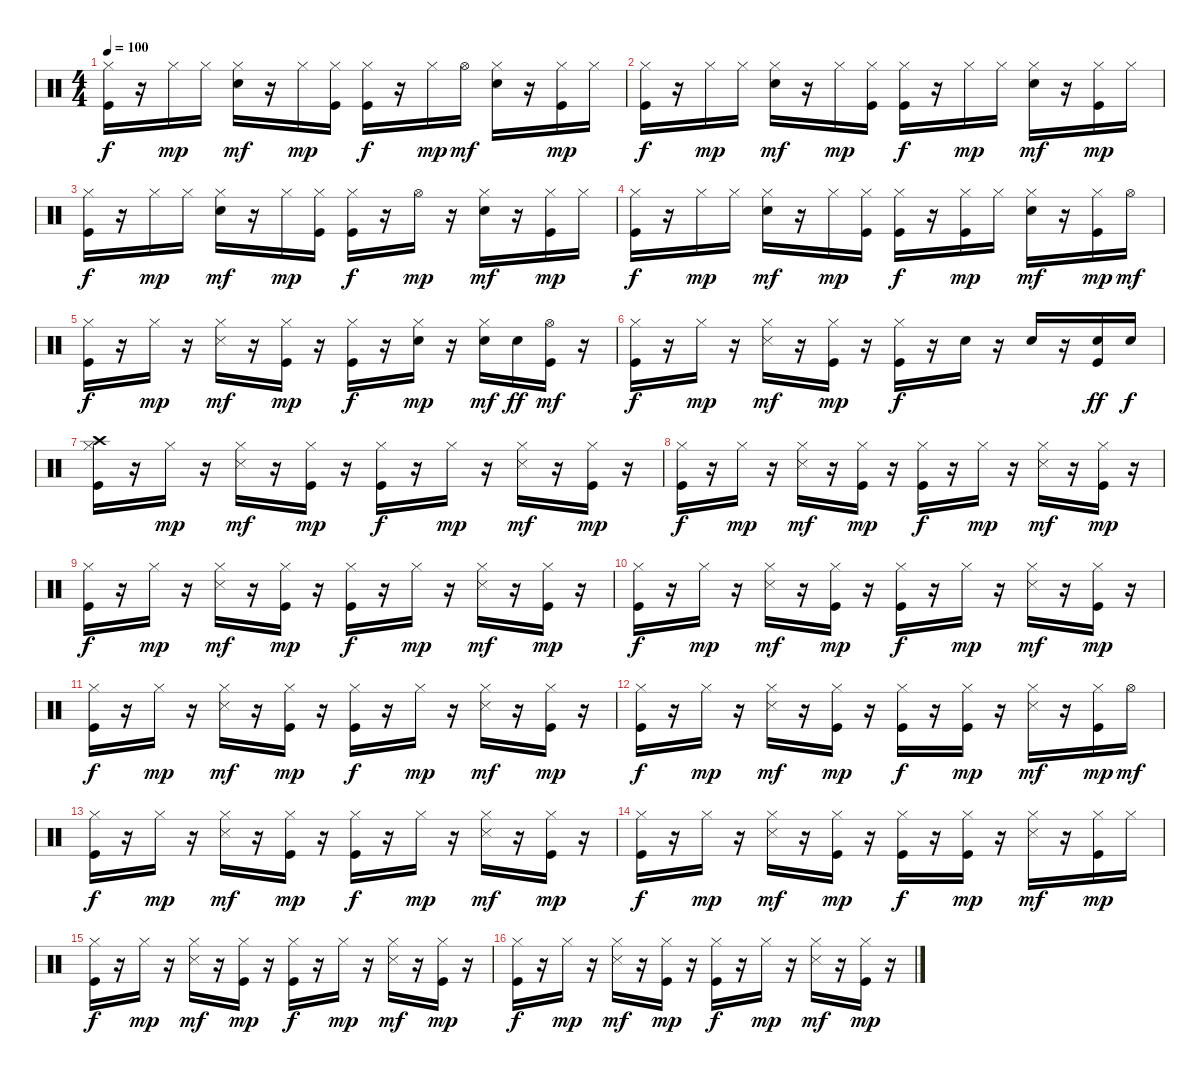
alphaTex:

\track "" {instrument percussion}
\staff {score}
\articulation defaults
\ts (4 4)
\tempo 100
\clef neutral
\ks c
("Kick (hit)" "Hi-Hat (closed)").16{dy f} r.16 "Hi-Hat (closed)".16{dy mp} "Hi-Hat (closed)".16 ("Snare (hit) 2" "Hi-Hat (closed)").16{dy mf} r.16 "Hi-Hat (closed)".16{dy mp} ("Kick (hit)" "Hi-Hat (closed)").16 ("Kick (hit)" "Hi-Hat (closed)").16{dy f} r.16 "Hi-Hat (closed)".16{dy mp} "Hi-Hat (open)".16{dy mf} ("Snare (hit) 2" "Hi-Hat (closed)").16 r.16 ("Kick (hit)" "Hi-Hat (closed)").16{dy mp} "Hi-Hat (closed)".16 |
("Kick (hit)" "Hi-Hat (closed)").16{dy f} r.16 "Hi-Hat (closed)".16{dy mp} "Hi-Hat (closed)".16 ("Snare (hit) 2" "Hi-Hat (closed)").16{dy mf} r.16 "Hi-Hat (closed)".16{dy mp} ("Kick (hit)" "Hi-Hat (closed)").16 ("Kick (hit)" "Hi-Hat (closed)").16{dy f} r.16 "Hi-Hat (closed)".16{dy mp} "Hi-Hat (closed)".16 ("Snare (hit) 2" "Hi-Hat (closed)").16{dy mf} r.16 ("Kick (hit)" "Hi-Hat (closed)").16{dy mp} "Hi-Hat (closed)".16 |
("Kick (hit)" "Hi-Hat (closed)").16{dy f} r.16 "Hi-Hat (closed)".16{dy mp} "Hi-Hat (closed)".16 ("Snare (hit) 2" "Hi-Hat (closed)").16{dy mf} r.16 "Hi-Hat (closed)".16{dy mp} ("Kick (hit)" "Hi-Hat (closed)").16 ("Kick (hit)" "Hi-Hat (closed)").16{dy f} r.16 "Hi-Hat (open)".16{dy mp} r.16 ("Snare (hit) 2" "Hi-Hat (closed)").16{dy mf} r.16 ("Kick (hit)" "Hi-Hat (closed)").16{dy mp} "Hi-Hat (closed)".16 |
("Kick (hit)" "Hi-Hat (closed)").16{dy f} r.16 "Hi-Hat (closed)".16{dy mp} "Hi-Hat (closed)".16 ("Snare (hit) 2" "Hi-Hat (closed)").16{dy mf} r.16 "Hi-Hat (closed)".16{dy mp} ("Kick (hit)" "Hi-Hat (closed)").16 ("Kick (hit)" "Hi-Hat (closed)").16{dy f} r.16 ("Kick (hit)" "Hi-Hat (closed)").16{dy mp} "Hi-Hat (closed)".16 ("Snare (hit) 2" "Hi-Hat (closed)").16{dy mf} r.16 ("Kick (hit)" "Hi-Hat (closed)").16{dy mp} "Hi-Hat (open)".16{dy mf} |
("Kick (hit)" "Hi-Hat (closed)").16{dy f} r.16 "Hi-Hat (closed)".16{dy mp} r.16 ("Hi-Hat (closed)" "Snare (side stick) 3").16{dy mf} r.16 ("Kick (hit)" "Hi-Hat (closed)").16{dy mp} r.16 ("Kick (hit)" "Hi-Hat (closed)").16{dy f} r.16 ("Snare (hit) 2" "Hi-Hat (closed)").16{dy mp} r.16 ("Snare (hit) 2" "Hi-Hat (closed)").16{dy mf} "Snare (hit) 2".16{dy ff} ("Kick (hit)" "Hi-Hat (open)").16{dy mf} r.16 |
("Kick (hit)" "Hi-Hat (closed)").16{dy f} r.16 "Hi-Hat (closed)".16{dy mp} r.16 ("Hi-Hat (closed)" "Snare (side stick) 3").16{dy mf} r.16 ("Kick (hit)" "Hi-Hat (closed)").16{dy mp} r.16 ("Kick (hit)" "Hi-Hat (closed)").16{dy f} r.16 "Snare (hit) 2".16 r.16 "Snare (hit) 2".16 r.16 ("Kick (hit)" "Snare (hit) 2").16{dy ff} "Snare (hit) 2".16{dy f} |
("Kick (hit)" "Hi-Hat (closed)" "Crash high (hit)").16 r.16 "Hi-Hat (closed)".16{dy mp} r.16 ("Hi-Hat (closed)" "Snare (side stick) 3").16{dy mf} r.16 ("Kick (hit)" "Hi-Hat (closed)").16{dy mp} r.16 ("Kick (hit)" "Hi-Hat (closed)").16{dy f} r.16 "Hi-Hat (closed)".16{dy mp} r.16 ("Hi-Hat (closed)" "Snare (side stick) 3").16{dy mf} r.16 ("Kick (hit)" "Hi-Hat (closed)").16{dy mp} r.16 |
("Kick (hit)" "Hi-Hat (closed)").16{dy f} r.16 "Hi-Hat (closed)".16{dy mp} r.16 ("Hi-Hat (closed)" "Snare (side stick) 3").16{dy mf} r.16 ("Kick (hit)" "Hi-Hat (closed)").16{dy mp} r.16 ("Kick (hit)" "Hi-Hat (closed)").16{dy f} r.16 "Hi-Hat (closed)".16{dy mp} r.16 ("Hi-Hat (closed)" "Snare (side stick) 3").16{dy mf} r.16 ("Kick (hit)" "Hi-Hat (closed)").16{dy mp} r.16 |
("Kick (hit)" "Hi-Hat (closed)").16{dy f} r.16 "Hi-Hat (closed)".16{dy mp} r.16 ("Hi-Hat (closed)" "Snare (side stick) 3").16{dy mf} r.16 ("Kick (hit)" "Hi-Hat (closed)").16{dy mp} r.16 ("Kick (hit)" "Hi-Hat (closed)").16{dy f} r.16 "Hi-Hat (closed)".16{dy mp} r.16 ("Hi-Hat (closed)" "Snare (side stick) 3").16{dy mf} r.16 ("Kick (hit)" "Hi-Hat (closed)").16{dy mp} r.16 |
("Kick (hit)" "Hi-Hat (closed)").16{dy f} r.16 "Hi-Hat (closed)".16{dy mp} r.16 ("Hi-Hat (closed)" "Snare (side stick) 3").16{dy mf} r.16 ("Kick (hit)" "Hi-Hat (closed)").16{dy mp} r.16 ("Kick (hit)" "Hi-Hat (closed)").16{dy f} r.16 "Hi-Hat (closed)".16{dy mp} r.16 ("Hi-Hat (closed)" "Snare (side stick) 3").16{dy mf} r.16 ("Kick (hit)" "Hi-Hat (closed)").16{dy mp} r.16 |
("Kick (hit)" "Hi-Hat (closed)").16{dy f} r.16 "Hi-Hat (closed)".16{dy mp} r.16 ("Hi-Hat (closed)" "Snare (side stick) 3").16{dy mf} r.16 ("Kick (hit)" "Hi-Hat (closed)").16{dy mp} r.16 ("Kick (hit)" "Hi-Hat (closed)").16{dy f} r.16 "Hi-Hat (closed)".16{dy mp} r.16 ("Hi-Hat (closed)" "Snare (side stick) 3").16{dy mf} r.16 ("Kick (hit)" "Hi-Hat (closed)").16{dy mp} r.16 |
("Kick (hit)" "Hi-Hat (closed)").16{dy f} r.16 "Hi-Hat (closed)".16{dy mp} r.16 ("Hi-Hat (closed)" "Snare (side stick) 3").16{dy mf} r.16 ("Kick (hit)" "Hi-Hat (closed)").16{dy mp} r.16 ("Kick (hit)" "Hi-Hat (closed)").16{dy f} r.16 ("Kick (hit)" "Hi-Hat (closed)").16{dy mp} r.16 ("Hi-Hat (closed)" "Snare (side stick) 3").16{dy mf} r.16 ("Kick (hit)" "Hi-Hat (closed)").16{dy mp} "Hi-Hat (open)".16{dy mf} |
("Kick (hit)" "Hi-Hat (closed)").16{dy f} r.16 "Hi-Hat (closed)".16{dy mp} r.16 ("Hi-Hat (closed)" "Snare (side stick) 3").16{dy mf} r.16 ("Kick (hit)" "Hi-Hat (closed)").16{dy mp} r.16 ("Kick (hit)" "Hi-Hat (closed)").16{dy f} r.16 "Hi-Hat (closed)".16{dy mp} r.16 ("Hi-Hat (closed)" "Snare (side stick) 3").16{dy mf} r.16 ("Kick (hit)" "Hi-Hat (closed)").16{dy mp} r.16 |
("Kick (hit)" "Hi-Hat (closed)").16{dy f} r.16 "Hi-Hat (closed)".16{dy mp} r.16 ("Hi-Hat (closed)" "Snare (side stick) 3").16{dy mf} r.16 ("Kick (hit)" "Hi-Hat (closed)").16{dy mp} r.16 ("Kick (hit)" "Hi-Hat (closed)").16{dy f} r.16 ("Kick (hit)" "Hi-Hat (closed)").16{dy mp} r.16 ("Hi-Hat (closed)" "Snare (side stick) 3").16{dy mf} r.16 ("Kick (hit)" "Hi-Hat (closed)").16{dy mp} "Hi-Hat (closed)".16 |
("Kick (hit)" "Hi-Hat (closed)").16{dy f} r.16 "Hi-Hat (closed)".16{dy mp} r.16 ("Hi-Hat (closed)" "Snare (side stick) 3").16{dy mf} r.16 ("Kick (hit)" "Hi-Hat (closed)").16{dy mp} r.16 ("Kick (hit)" "Hi-Hat (closed)").16{dy f} r.16 "Hi-Hat (closed)".16{dy mp} r.16 ("Hi-Hat (closed)" "Snare (side stick) 3").16{dy mf} r.16 ("Kick (hit)" "Hi-Hat (closed)").16{dy mp} r.16 |
("Kick (hit)" "Hi-Hat (closed)").16{dy f} r.16 "Hi-Hat (closed)".16{dy mp} r.16 ("Hi-Hat (closed)" "Snare (side stick) 3").16{dy mf} r.16 ("Kick (hit)" "Hi-Hat (closed)").16{dy mp} r.16 ("Kick (hit)" "Hi-Hat (closed)").16{dy f} r.16 "Hi-Hat (closed)".16{dy mp} r.16 ("Hi-Hat (closed)" "Snare (side stick) 3").16{dy mf} r.16 ("Kick (hit)" "Hi-Hat (closed)").16{dy mp} r.16
